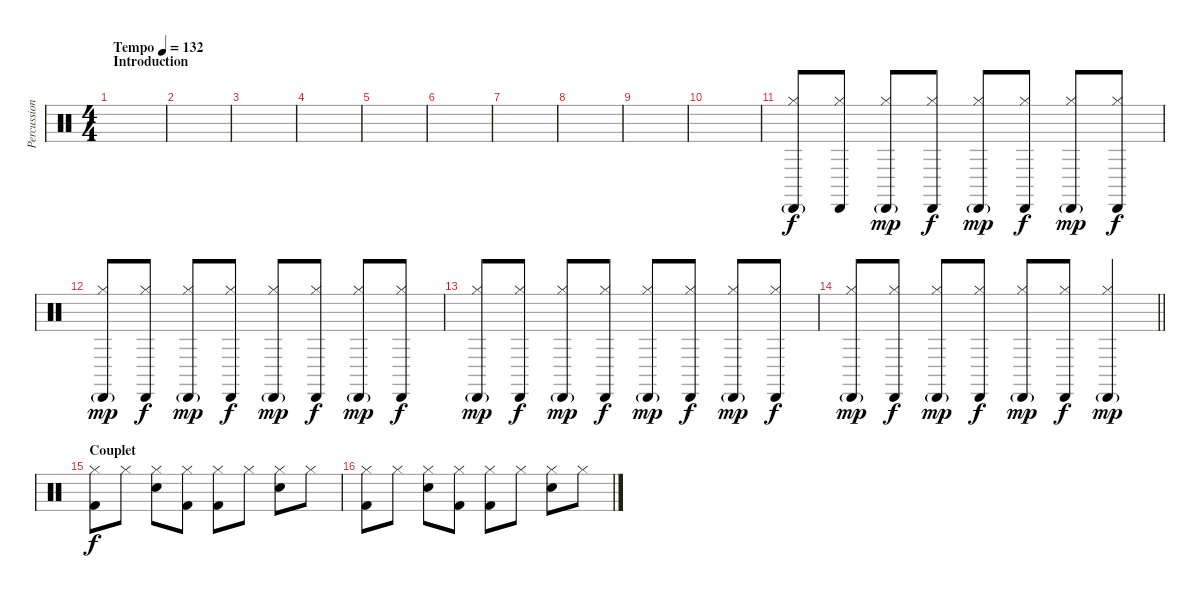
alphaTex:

\track ("Percussions" "Percussion") {instrument percussion}
\staff {score}
\articulation defaults
\ts (4 4)
\section ("" "Introduction")
\tempo (132 "Tempo")
\clef neutral
\ks c
|
|
|
|
|
|
|
|
|
|
("Hi-Hat (closed)" "Cabasa (hit)"{g}).8 ("Hi-Hat (closed)" "Cabasa (hit)").8{dy f} ("Hi-Hat (closed)" "Cabasa (hit)"{g}).8{dy mp} ("Hi-Hat (closed)" "Cabasa (hit)").8{dy f} ("Hi-Hat (closed)" "Cabasa (hit)"{g}).8{dy mp} ("Hi-Hat (closed)" "Cabasa (hit)").8{dy f} ("Hi-Hat (closed)" "Cabasa (hit)"{g}).8{dy mp} ("Hi-Hat (closed)" "Cabasa (hit)").8{dy f} |
("Hi-Hat (closed)" "Cabasa (hit)"{g}).8{dy mp} ("Hi-Hat (closed)" "Cabasa (hit)").8{dy f} ("Hi-Hat (closed)" "Cabasa (hit)"{g}).8{dy mp} ("Hi-Hat (closed)" "Cabasa (hit)").8{dy f} ("Hi-Hat (closed)" "Cabasa (hit)"{g}).8{dy mp} ("Hi-Hat (closed)" "Cabasa (hit)").8{dy f} ("Hi-Hat (closed)" "Cabasa (hit)"{g}).8{dy mp} ("Hi-Hat (closed)" "Cabasa (hit)").8{dy f} |
("Hi-Hat (closed)" "Cabasa (hit)"{g}).8{dy mp} ("Hi-Hat (closed)" "Cabasa (hit)").8{dy f} ("Hi-Hat (closed)" "Cabasa (hit)"{g}).8{dy mp} ("Hi-Hat (closed)" "Cabasa (hit)").8{dy f} ("Hi-Hat (closed)" "Cabasa (hit)"{g}).8{dy mp} ("Hi-Hat (closed)" "Cabasa (hit)").8{dy f} ("Hi-Hat (closed)" "Cabasa (hit)"{g}).8{dy mp} ("Hi-Hat (closed)" "Cabasa (hit)").8{dy f} |
\barLineRight lightlight
("Hi-Hat (closed)" "Cabasa (hit)"{g}).8{dy mp} ("Hi-Hat (closed)" "Cabasa (hit)").8{dy f} ("Hi-Hat (closed)" "Cabasa (hit)"{g}).8{dy mp} ("Hi-Hat (closed)" "Cabasa (hit)").8{dy f} ("Hi-Hat (closed)" "Cabasa (hit)"{g}).8{dy mp} ("Hi-Hat (closed)" "Cabasa (hit)").8{dy f} ("Hi-Hat (closed)" "Cabasa (hit)"{g}).4{dy mp} |
\section ("" "Couplet")
("Hi-Hat (closed)" "Kick (hit) 2").8{dy f} "Hi-Hat (closed)".8 ("Hi-Hat (closed)" "Snare (hit) 2").8 ("Hi-Hat (closed)" "Kick (hit) 2").8 ("Hi-Hat (closed)" "Kick (hit) 2").8 "Hi-Hat (closed)".8 ("Hi-Hat (closed)" "Snare (hit) 2").8 "Hi-Hat (closed)".8 |
("Hi-Hat (closed)" "Kick (hit) 2").8 "Hi-Hat (closed)".8 ("Hi-Hat (closed)" "Snare (hit) 2").8 ("Hi-Hat (closed)" "Kick (hit) 2").8 ("Hi-Hat (closed)" "Kick (hit) 2").8 "Hi-Hat (closed)".8 ("Hi-Hat (closed)" "Snare (hit) 2").8 "Hi-Hat (closed)".8
